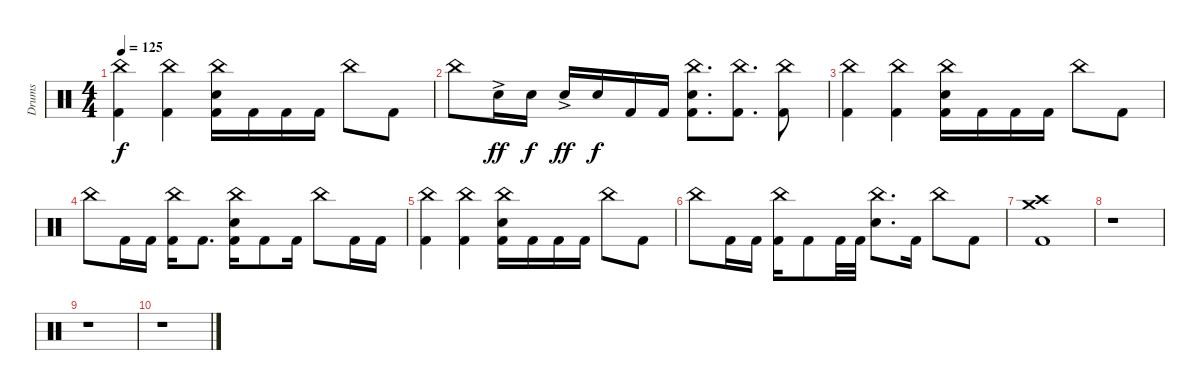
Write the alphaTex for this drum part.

\track ("Drums" "Drums") {instrument percussion}
\staff {score}
\articulation defaults
\ts (4 4)
\tempo 125
\clef neutral
\ks c
("China (hit)" "Kick (hit) 2").4{dy f} ("China (hit)" "Kick (hit) 2").4 ("China (hit)" "Electric Snare (hit)" "Kick (hit) 2").16 "Kick (hit) 2".16 "Kick (hit) 2".16 "Kick (hit) 2".16 "China (hit)".8 "Kick (hit) 2".8 |
"China (hit)".8 "Electric Snare (hit)"{ac}.16{dy ff} "Electric Snare (hit)".16{dy f} "Electric Snare (hit)"{ac}.16{dy ff} "Electric Snare (hit)".16{dy f} "Kick (hit) 2".16 "Kick (hit) 2".16 ("China (hit)" "Electric Snare (hit)" "Kick (hit) 2").8{d} ("China (hit)" "Kick (hit) 2").8{d} ("China (hit)" "Kick (hit) 2").8 |
("China (hit)" "Kick (hit) 2").4 ("China (hit)" "Kick (hit) 2").4 ("China (hit)" "Electric Snare (hit)" "Kick (hit) 2").16 "Kick (hit) 2".16 "Kick (hit) 2".16 "Kick (hit) 2".16 "China (hit)".8 "Kick (hit) 2".8 |
"China (hit)".8 "Kick (hit) 2".16 "Kick (hit) 2".16 ("China (hit)" "Kick (hit) 2").16 "Kick (hit) 2".8{d} ("China (hit)" "Electric Snare (hit)" "Kick (hit) 2").16 "Kick (hit) 2".8 "Kick (hit) 2".16 "China (hit)".8 "Kick (hit) 2".16 "Kick (hit) 2".16 |
("China (hit)" "Kick (hit) 2").4 ("China (hit)" "Kick (hit) 2").4 ("China (hit)" "Electric Snare (hit)" "Kick (hit) 2").16 "Kick (hit) 2".16 "Kick (hit) 2".16 "Kick (hit) 2".16 "China (hit)".8 "Kick (hit) 2".8 |
"China (hit)".8 "Kick (hit) 2".16 "Kick (hit) 2".16 ("China (hit)" "Kick (hit) 2").16 "Kick (hit) 2".8 "Kick (hit) 2".32 "Kick (hit) 2".32 ("China (hit)" "Electric Snare (hit)").8{d} "Kick (hit) 2".16 "China (hit)".8 "Kick (hit) 2".8 |
("Crash medium (hit)" "Crash high (hit)" "Kick (hit) 2").1 |
r.1 |
r.1 |
r.1
